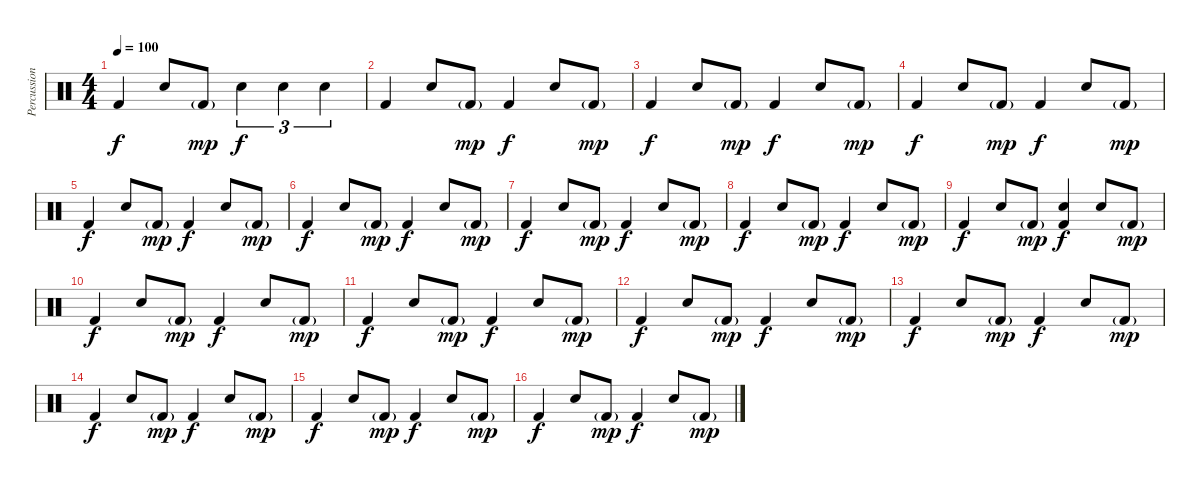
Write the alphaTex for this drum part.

\track ("Percussion" "Percussion") {instrument percussion}
\staff {score}
\articulation defaults
\ts (4 4)
\tempo 100
\clef neutral
\ks c "Kick (hit) 2".4{dy f} "Snare (hit) 2".8 "Kick (hit) 2"{g}.8{dy mp} "Snare (hit) 2".4{tu (3 2) dy f} "Snare (hit) 2".4{tu (3 2)} "Snare (hit) 2".4{tu (3 2)}
|
"Kick (hit) 2".4 "Snare (hit) 2".8 "Kick (hit) 2"{g}.8{dy mp} "Kick (hit) 2".4{dy f} "Snare (hit) 2".8 "Kick (hit) 2"{g}.8{dy mp} |
"Kick (hit) 2".4{dy f} "Snare (hit) 2".8 "Kick (hit) 2"{g}.8{dy mp} "Kick (hit) 2".4{dy f} "Snare (hit) 2".8 "Kick (hit) 2"{g}.8{dy mp} |
"Kick (hit) 2".4{dy f} "Snare (hit) 2".8 "Kick (hit) 2"{g}.8{dy mp} "Kick (hit) 2".4{dy f} "Snare (hit) 2".8 "Kick (hit) 2"{g}.8{dy mp} |
"Kick (hit) 2".4{dy f} "Snare (hit) 2".8 "Kick (hit) 2"{g}.8{dy mp} "Kick (hit) 2".4{dy f} "Snare (hit) 2".8 "Kick (hit) 2"{g}.8{dy mp} |
"Kick (hit) 2".4{dy f} "Snare (hit) 2".8 "Kick (hit) 2"{g}.8{dy mp} "Kick (hit) 2".4{dy f} "Snare (hit) 2".8 "Kick (hit) 2"{g}.8{dy mp} |
"Kick (hit) 2".4{dy f} "Snare (hit) 2".8 "Kick (hit) 2"{g}.8{dy mp} "Kick (hit) 2".4{dy f} "Snare (hit) 2".8 "Kick (hit) 2"{g}.8{dy mp} |
"Kick (hit) 2".4{dy f} "Snare (hit) 2".8 "Kick (hit) 2"{g}.8{dy mp} "Kick (hit) 2".4{dy f} "Snare (hit) 2".8 "Kick (hit) 2"{g}.8{dy mp} |
"Kick (hit) 2".4{dy f} "Snare (hit) 2".8 "Kick (hit) 2"{g}.8{dy mp} ("Snare (hit) 2" "Kick (hit) 2").4{dy f} "Snare (hit) 2".8 "Kick (hit) 2"{g}.8{dy mp} |
"Kick (hit) 2".4{dy f} "Snare (hit) 2".8 "Kick (hit) 2"{g}.8{dy mp} "Kick (hit) 2".4{dy f} "Snare (hit) 2".8 "Kick (hit) 2"{g}.8{dy mp} |
"Kick (hit) 2".4{dy f} "Snare (hit) 2".8 "Kick (hit) 2"{g}.8{dy mp} "Kick (hit) 2".4{dy f} "Snare (hit) 2".8 "Kick (hit) 2"{g}.8{dy mp} |
"Kick (hit) 2".4{dy f} "Snare (hit) 2".8 "Kick (hit) 2"{g}.8{dy mp} "Kick (hit) 2".4{dy f} "Snare (hit) 2".8 "Kick (hit) 2"{g}.8{dy mp} |
"Kick (hit) 2".4{dy f} "Snare (hit) 2".8 "Kick (hit) 2"{g}.8{dy mp} "Kick (hit) 2".4{dy f} "Snare (hit) 2".8 "Kick (hit) 2"{g}.8{dy mp} |
"Kick (hit) 2".4{dy f} "Snare (hit) 2".8 "Kick (hit) 2"{g}.8{dy mp} "Kick (hit) 2".4{dy f} "Snare (hit) 2".8 "Kick (hit) 2"{g}.8{dy mp} |
"Kick (hit) 2".4{dy f} "Snare (hit) 2".8 "Kick (hit) 2"{g}.8{dy mp} "Kick (hit) 2".4{dy f} "Snare (hit) 2".8 "Kick (hit) 2"{g}.8{dy mp} |
"Kick (hit) 2".4{dy f} "Snare (hit) 2".8 "Kick (hit) 2"{g}.8{dy mp} "Kick (hit) 2".4{dy f} "Snare (hit) 2".8 "Kick (hit) 2"{g}.8{dy mp}
